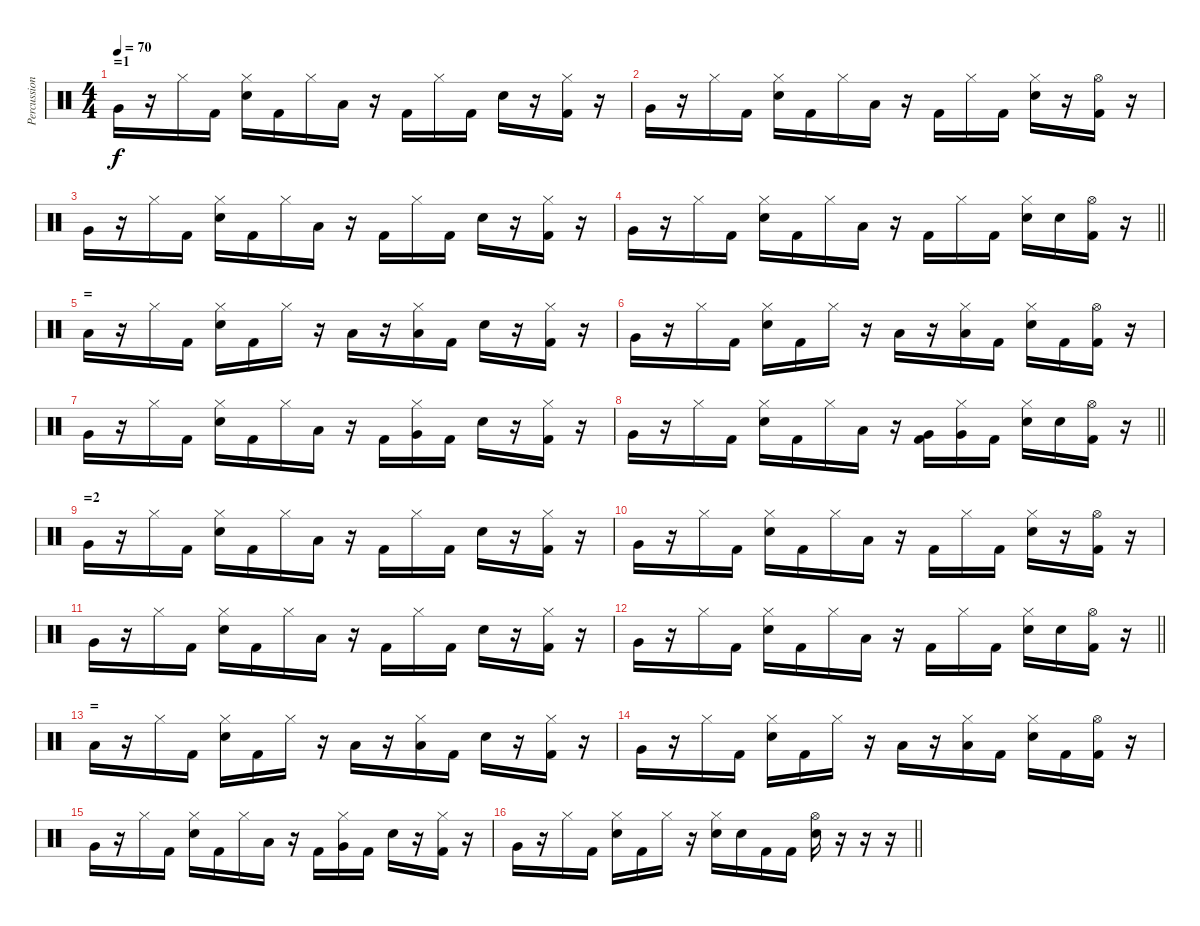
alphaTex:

\track ("Percussion" "Percussion") {instrument percussion}
\staff {score}
\articulation defaults
\ts (4 4)
\section ("" "=1")
\tempo 70
\clef neutral
\ks c "Very Low Tom (hit)".16{dy f}
r.16 "Hi-Hat (closed)".16 "Kick (hit) 2".16 ("Electric Snare (hit)" "Hi-Hat (closed)").16 "Kick (hit) 2".16 "Hi-Hat (closed)".16 "Low Floor Tom (hit)".16 r.16 "Kick (hit) 2".16 "Hi-Hat (closed)".16 "Kick (hit) 2".16 "Electric Snare (hit)".16 r.16 ("Kick (hit) 2" "Hi-Hat (closed)").16 r.16 |
"Very Low Tom (hit)".16 r.16 "Hi-Hat (closed)".16 "Kick (hit) 2".16 ("Electric Snare (hit)" "Hi-Hat (closed)").16 "Kick (hit) 2".16 "Hi-Hat (closed)".16 "Low Floor Tom (hit)".16 r.16 "Kick (hit) 2".16 "Hi-Hat (closed)".16 "Kick (hit) 2".16 ("Electric Snare (hit)" "Hi-Hat (closed)").16 r.16 ("Kick (hit) 2" "Hi-Hat (open)").16 r.16 |
"Very Low Tom (hit)".16 r.16 "Hi-Hat (closed)".16 "Kick (hit) 2".16 ("Electric Snare (hit)" "Hi-Hat (closed)").16 "Kick (hit) 2".16 "Hi-Hat (closed)".16 "Low Floor Tom (hit)".16 r.16 "Kick (hit) 2".16 "Hi-Hat (closed)".16 "Kick (hit) 2".16 "Electric Snare (hit)".16 r.16 ("Kick (hit) 2" "Hi-Hat (closed)").16 r.16 |
\barLineRight lightlight "Very Low Tom (hit)".16
r.16 "Hi-Hat (closed)".16 "Kick (hit) 2".16 ("Electric Snare (hit)" "Hi-Hat (closed)").16 "Kick (hit) 2".16 "Hi-Hat (closed)".16 "Low Floor Tom (hit)".16 r.16 "Kick (hit) 2".16 "Hi-Hat (closed)".16 "Kick (hit) 2".16 ("Electric Snare (hit)" "Hi-Hat (closed)").16 "Electric Snare (hit)".16 ("Kick (hit) 2" "Hi-Hat (open)").16 r.16 |
\section ("" "=")
"Low Floor Tom (hit)".16 r.16 "Hi-Hat (closed)".16 "Kick (hit) 2".16 ("Electric Snare (hit)" "Hi-Hat (closed)").16 "Kick (hit) 2".16 "Hi-Hat (closed)".16 r.16 "Low Floor Tom (hit)".16 r.16 ("Low Floor Tom (hit)" "Hi-Hat (closed)").16 "Kick (hit) 2".16 "Electric Snare (hit)".16 r.16 ("Kick (hit) 2" "Hi-Hat (closed)").16 r.16 |
"Very Low Tom (hit)".16 r.16 "Hi-Hat (closed)".16 "Kick (hit) 2".16 ("Electric Snare (hit)" "Hi-Hat (closed)").16 "Kick (hit) 2".16 "Hi-Hat (closed)".16 r.16 "Low Floor Tom (hit)".16 r.16 ("Low Floor Tom (hit)" "Hi-Hat (closed)").16 "Kick (hit) 2".16 ("Electric Snare (hit)" "Hi-Hat (closed)").16 "Kick (hit) 2".16 ("Kick (hit) 2" "Hi-Hat (open)").16 r.16 |
"Very Low Tom (hit)".16 r.16 "Hi-Hat (closed)".16 "Kick (hit) 2".16 ("Electric Snare (hit)" "Hi-Hat (closed)").16 "Kick (hit) 2".16 "Hi-Hat (closed)".16 "Low Floor Tom (hit)".16 r.16 "Kick (hit) 2".16 ("Very Low Tom (hit)" "Hi-Hat (closed)").16 "Kick (hit) 2".16 "Electric Snare (hit)".16 r.16 ("Kick (hit) 2" "Hi-Hat (closed)").16 r.16 |
\barLineRight lightlight "Very Low Tom (hit)".16
r.16 "Hi-Hat (closed)".16 "Kick (hit) 2".16 ("Electric Snare (hit)" "Hi-Hat (closed)").16 "Kick (hit) 2".16 "Hi-Hat (closed)".16 "Low Floor Tom (hit)".16 r.16 ("Kick (hit) 2" "Very Low Tom (hit)").16 ("Very Low Tom (hit)" "Hi-Hat (closed)").16 "Kick (hit) 2".16 ("Electric Snare (hit)" "Hi-Hat (closed)").16 "Electric Snare (hit)".16 ("Kick (hit) 2" "Hi-Hat (open)").16 r.16 |
\section ("" "=2")
"Very Low Tom (hit)".16 r.16 "Hi-Hat (closed)".16 "Kick (hit) 2".16 ("Electric Snare (hit)" "Hi-Hat (closed)").16 "Kick (hit) 2".16 "Hi-Hat (closed)".16 "Low Floor Tom (hit)".16 r.16 "Kick (hit) 2".16 "Hi-Hat (closed)".16 "Kick (hit) 2".16 "Electric Snare (hit)".16 r.16 ("Kick (hit) 2" "Hi-Hat (closed)").16 r.16 |
"Very Low Tom (hit)".16 r.16 "Hi-Hat (closed)".16 "Kick (hit) 2".16 ("Electric Snare (hit)" "Hi-Hat (closed)").16 "Kick (hit) 2".16 "Hi-Hat (closed)".16 "Low Floor Tom (hit)".16 r.16 "Kick (hit) 2".16 "Hi-Hat (closed)".16 "Kick (hit) 2".16 ("Electric Snare (hit)" "Hi-Hat (closed)").16 r.16 ("Kick (hit) 2" "Hi-Hat (open)").16 r.16 |
"Very Low Tom (hit)".16 r.16 "Hi-Hat (closed)".16 "Kick (hit) 2".16 ("Electric Snare (hit)" "Hi-Hat (closed)").16 "Kick (hit) 2".16 "Hi-Hat (closed)".16 "Low Floor Tom (hit)".16 r.16 "Kick (hit) 2".16 "Hi-Hat (closed)".16 "Kick (hit) 2".16 "Electric Snare (hit)".16 r.16 ("Kick (hit) 2" "Hi-Hat (closed)").16 r.16 |
\barLineRight lightlight "Very Low Tom (hit)".16
r.16 "Hi-Hat (closed)".16 "Kick (hit) 2".16 ("Electric Snare (hit)" "Hi-Hat (closed)").16 "Kick (hit) 2".16 "Hi-Hat (closed)".16 "Low Floor Tom (hit)".16 r.16 "Kick (hit) 2".16 "Hi-Hat (closed)".16 "Kick (hit) 2".16 ("Electric Snare (hit)" "Hi-Hat (closed)").16 "Electric Snare (hit)".16 ("Kick (hit) 2" "Hi-Hat (open)").16 r.16 |
\section ("" "=")
"Low Floor Tom (hit)".16 r.16 "Hi-Hat (closed)".16 "Kick (hit) 2".16 ("Electric Snare (hit)" "Hi-Hat (closed)").16 "Kick (hit) 2".16 "Hi-Hat (closed)".16 r.16 "Low Floor Tom (hit)".16 r.16 ("Low Floor Tom (hit)" "Hi-Hat (closed)").16 "Kick (hit) 2".16 "Electric Snare (hit)".16 r.16 ("Kick (hit) 2" "Hi-Hat (closed)").16 r.16 |
"Very Low Tom (hit)".16 r.16 "Hi-Hat (closed)".16 "Kick (hit) 2".16 ("Electric Snare (hit)" "Hi-Hat (closed)").16 "Kick (hit) 2".16 "Hi-Hat (closed)".16 r.16 "Low Floor Tom (hit)".16 r.16 ("Low Floor Tom (hit)" "Hi-Hat (closed)").16 "Kick (hit) 2".16 ("Electric Snare (hit)" "Hi-Hat (closed)").16 "Kick (hit) 2".16 ("Kick (hit) 2" "Hi-Hat (open)").16 r.16 |
"Very Low Tom (hit)".16 r.16 "Hi-Hat (closed)".16 "Kick (hit) 2".16 ("Electric Snare (hit)" "Hi-Hat (closed)").16 "Kick (hit) 2".16 "Hi-Hat (closed)".16 "Low Floor Tom (hit)".16 r.16 "Kick (hit) 2".16 ("Very Low Tom (hit)" "Hi-Hat (closed)").16 "Kick (hit) 2".16 "Electric Snare (hit)".16 r.16 ("Kick (hit) 2" "Hi-Hat (closed)").16 r.16 |
\barLineRight lightlight "Very Low Tom (hit)".16
r.16 "Hi-Hat (closed)".16 "Kick (hit) 2".16 ("Electric Snare (hit)" "Hi-Hat (closed)").16 "Kick (hit) 2".16 "Hi-Hat (closed)".16 r.16 ("Electric Snare (hit)" "Hi-Hat (closed)").16 "Electric Snare (hit)".16 "Kick (hit) 2".16 "Kick (hit) 2".16 ("Electric Snare (hit)" "Hi-Hat (open)").16 r.16 r.16 r.16
